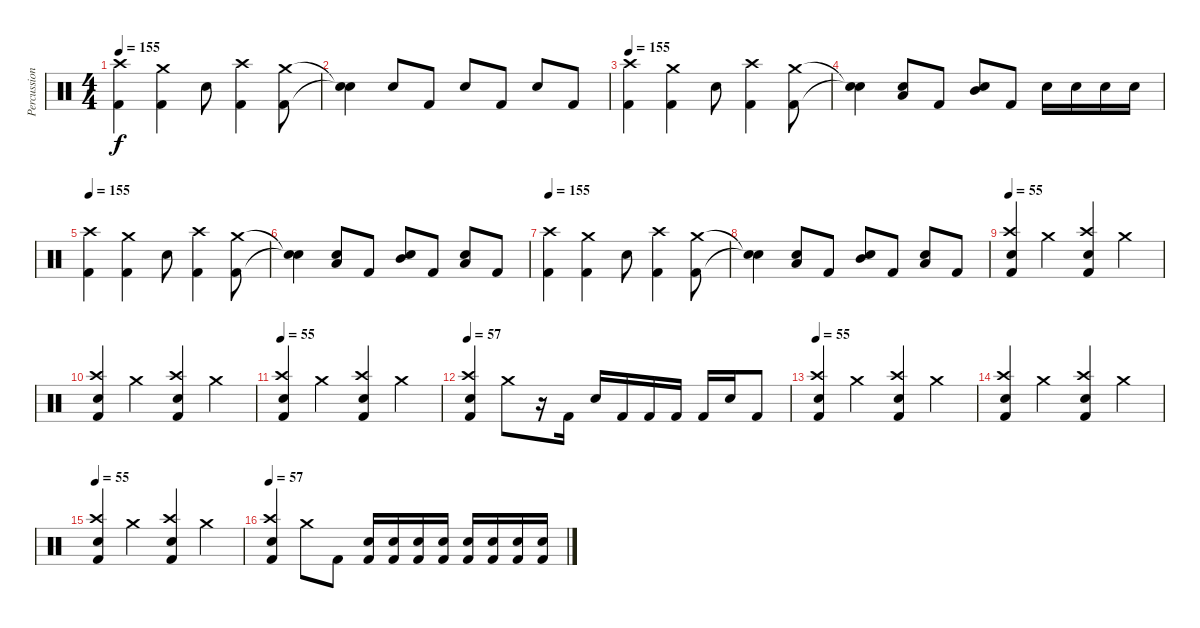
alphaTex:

\track ("Percussion" "Percussion") {instrument percussion}
\staff {score}
\articulation defaults
\ts (4 4)
\tempo 155
\clef neutral
\ks c
("Kick (hit) 2" "Crash high (hit)").4{dy f} ("Kick (hit) 2" "Crash medium (hit)").4 "Electric Snare (hit)".8 ("Kick (hit) 2" "Crash high (hit)").4 ("Kick (hit) 2" "Crash medium (hit)").8 |
("Snare (hit)"{t} "Snare (hit)"{t}).4 "Electric Snare (hit)".8 "Kick (hit) 2".8 "Electric Snare (hit)".8 "Kick (hit) 2".8 "Electric Snare (hit)".8 "Kick (hit) 2".8 |
\tempo 155
("Kick (hit) 2" "Crash high (hit)").4 ("Kick (hit) 2" "Crash medium (hit)").4 "Electric Snare (hit)".8 ("Kick (hit) 2" "Crash high (hit)").4 ("Kick (hit) 2" "Crash medium (hit)").8 |
("Snare (hit)"{t} "Snare (hit)"{t}).4 ("Electric Snare (hit)" "Low Tom (hit)").8 "Kick (hit) 2".8 ("Electric Snare (hit)" "Mid Tom (hit)").8 "Kick (hit) 2".8 "Electric Snare (hit)".16 "Electric Snare (hit)".16 "Electric Snare (hit)".16 "Electric Snare (hit)".16 |
\tempo 155
("Kick (hit) 2" "Crash high (hit)").4 ("Kick (hit) 2" "Crash medium (hit)").4 "Electric Snare (hit)".8 ("Kick (hit) 2" "Crash high (hit)").4 ("Kick (hit) 2" "Crash medium (hit)").8 |
("Snare (hit)"{t} "Snare (hit)"{t}).4 ("Electric Snare (hit)" "Low Tom (hit)").8 "Kick (hit) 2".8 ("Electric Snare (hit)" "Mid Tom (hit)").8 "Kick (hit) 2".8 ("Electric Snare (hit)" "Low Tom (hit)").8 "Kick (hit) 2".8 |
\tempo 155
("Kick (hit) 2" "Crash high (hit)").4 ("Kick (hit) 2" "Crash medium (hit)").4 "Electric Snare (hit)".8 ("Kick (hit) 2" "Crash high (hit)").4 ("Kick (hit) 2" "Crash medium (hit)").8 |
("Snare (hit)"{t} "Snare (hit)"{t}).4 ("Electric Snare (hit)" "Low Tom (hit)").8 "Kick (hit) 2".8 ("Electric Snare (hit)" "Mid Tom (hit)").8 "Kick (hit) 2".8 ("Electric Snare (hit)" "Low Tom (hit)").8 "Kick (hit) 2".8 |
\tempo 55
("Electric Snare (hit)" "Kick (hit) 2" "Crash high (hit)").4 "Crash medium (hit)".4 ("Electric Snare (hit)" "Kick (hit) 2" "Crash high (hit)").4 "Crash medium (hit)".4 |
("Electric Snare (hit)" "Kick (hit) 2" "Crash high (hit)").4 "Crash medium (hit)".4 ("Electric Snare (hit)" "Kick (hit) 2" "Crash high (hit)").4 "Crash medium (hit)".4 |
\tempo 55
("Electric Snare (hit)" "Kick (hit) 2" "Crash high (hit)").4 "Crash medium (hit)".4 ("Electric Snare (hit)" "Kick (hit) 2" "Crash high (hit)").4 "Crash medium (hit)".4 |
\tempo 57
("Electric Snare (hit)" "Kick (hit) 2" "Crash high (hit)").4 "Crash medium (hit)".8 r.16 "Kick (hit) 2".16 "Electric Snare (hit)".16 "Kick (hit) 2".16 "Kick (hit) 2".16 "Kick (hit) 2".16 "Kick (hit) 2".16 "Electric Snare (hit)".16 "Kick (hit) 2".8 |
\tempo 55
("Electric Snare (hit)" "Kick (hit) 2" "Crash high (hit)").4 "Crash medium (hit)".4 ("Electric Snare (hit)" "Kick (hit) 2" "Crash high (hit)").4 "Crash medium (hit)".4 |
("Electric Snare (hit)" "Kick (hit) 2" "Crash high (hit)").4 "Crash medium (hit)".4 ("Electric Snare (hit)" "Kick (hit) 2" "Crash high (hit)").4 "Crash medium (hit)".4 |
\tempo 55
("Electric Snare (hit)" "Kick (hit) 2" "Crash high (hit)").4 "Crash medium (hit)".4 ("Electric Snare (hit)" "Kick (hit) 2" "Crash high (hit)").4 "Crash medium (hit)".4 |
\tempo 57
("Electric Snare (hit)" "Kick (hit) 2" "Crash high (hit)").4 "Crash medium (hit)".8 "Kick (hit) 2".8 ("Electric Snare (hit)" "Kick (hit) 2").16 ("Electric Snare (hit)" "Kick (hit) 2").16 ("Electric Snare (hit)" "Kick (hit) 2").16 ("Electric Snare (hit)" "Kick (hit) 2").16 ("Electric Snare (hit)" "Kick (hit) 2").16 ("Electric Snare (hit)" "Kick (hit) 2").16 ("Electric Snare (hit)" "Kick (hit) 2").16 ("Electric Snare (hit)" "Kick (hit) 2").16
